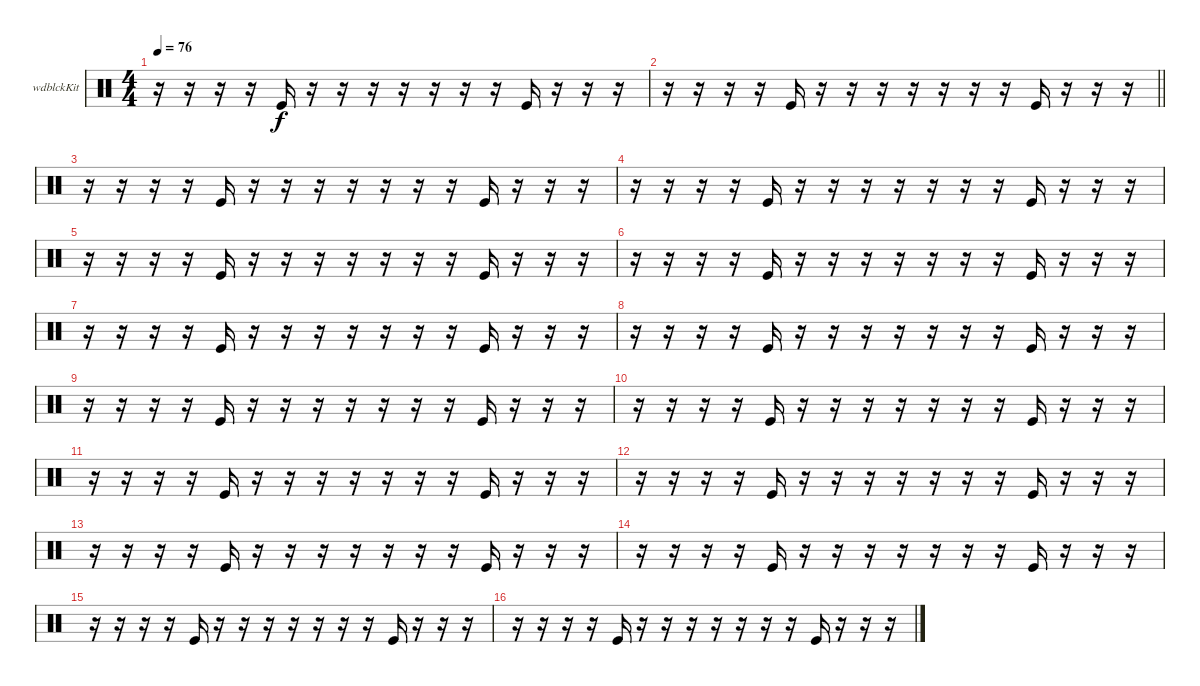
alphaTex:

\bracketExtendMode groupsimilarinstruments
\firstSystemTrackNameOrientation horizontal
\otherSystemsTrackNameOrientation horizontal
\track ("Woodblock" "wdblckKit") {instrument percussion}
\staff {score}
\articulation defaults
\ts (4 4)
\tempo 76
\clef neutral
\ks c
r.16{dy f} r.16 r.16 r.16 "Kick (hit)".16 r.16 r.16 r.16 r.16 r.16 r.16 r.16 "Kick (hit)".16 r.16 r.16 r.16 |
\barLineRight lightlight
r.16 r.16 r.16 r.16 "Kick (hit)".16 r.16 r.16 r.16 r.16 r.16 r.16 r.16 "Kick (hit)".16 r.16 r.16 r.16 |
r.16 r.16 r.16 r.16 "Kick (hit)".16 r.16 r.16 r.16 r.16 r.16 r.16 r.16 "Kick (hit)".16 r.16 r.16 r.16 |
r.16 r.16 r.16 r.16 "Kick (hit)".16 r.16 r.16 r.16 r.16 r.16 r.16 r.16 "Kick (hit)".16 r.16 r.16 r.16 |
r.16 r.16 r.16 r.16 "Kick (hit)".16 r.16 r.16 r.16 r.16 r.16 r.16 r.16 "Kick (hit)".16 r.16 r.16 r.16 |
r.16 r.16 r.16 r.16 "Kick (hit)".16 r.16 r.16 r.16 r.16 r.16 r.16 r.16 "Kick (hit)".16 r.16 r.16 r.16 |
r.16 r.16 r.16 r.16 "Kick (hit)".16 r.16 r.16 r.16 r.16 r.16 r.16 r.16 "Kick (hit)".16 r.16 r.16 r.16 |
r.16 r.16 r.16 r.16 "Kick (hit)".16 r.16 r.16 r.16 r.16 r.16 r.16 r.16 "Kick (hit)".16 r.16 r.16 r.16 |
r.16 r.16 r.16 r.16 "Kick (hit)".16 r.16 r.16 r.16 r.16 r.16 r.16 r.16 "Kick (hit)".16 r.16 r.16 r.16 |
r.16 r.16 r.16 r.16 "Kick (hit)".16 r.16 r.16 r.16 r.16 r.16 r.16 r.16 "Kick (hit)".16 r.16 r.16 r.16 |
r.16 r.16 r.16 r.16 "Kick (hit)".16 r.16 r.16 r.16 r.16 r.16 r.16 r.16 "Kick (hit)".16 r.16 r.16 r.16 |
r.16 r.16 r.16 r.16 "Kick (hit)".16 r.16 r.16 r.16 r.16 r.16 r.16 r.16 "Kick (hit)".16 r.16 r.16 r.16 |
r.16 r.16 r.16 r.16 "Kick (hit)".16 r.16 r.16 r.16 r.16 r.16 r.16 r.16 "Kick (hit)".16 r.16 r.16 r.16 |
r.16 r.16 r.16 r.16 "Kick (hit)".16 r.16 r.16 r.16 r.16 r.16 r.16 r.16 "Kick (hit)".16 r.16 r.16 r.16 |
r.16 r.16 r.16 r.16 "Kick (hit)".16 r.16 r.16 r.16 r.16 r.16 r.16 r.16 "Kick (hit)".16 r.16 r.16 r.16 |
r.16 r.16 r.16 r.16 "Kick (hit)".16 r.16 r.16 r.16 r.16 r.16 r.16 r.16 "Kick (hit)".16 r.16 r.16 r.16
